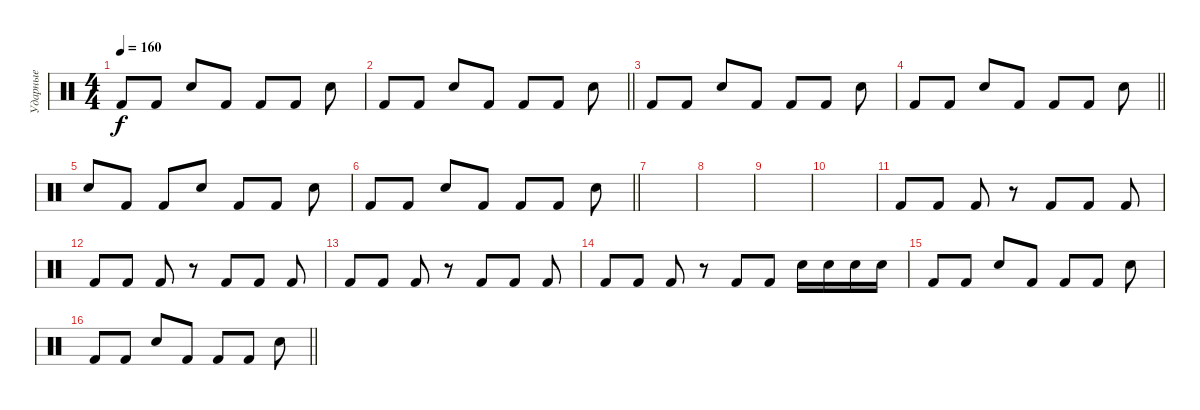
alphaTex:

\track ("Ударные" "Ударные") {instrument percussion}
\staff {score}
\articulation defaults
\ts (4 4)
\tempo 160
\clef neutral
\ks c "Kick (hit) 2".8{dy f} "Kick (hit) 2".8 "Snare (hit) 2".8 "Kick (hit) 2".8 "Kick (hit) 2".8 "Kick (hit) 2".8 "Snare (hit) 2".8
|
\barLineRight lightlight "Kick (hit) 2".8 "Kick (hit) 2".8 "Snare (hit) 2".8 "Kick (hit) 2".8 "Kick (hit) 2".8 "Kick (hit) 2".8 "Snare (hit) 2".8
|
"Kick (hit) 2".8 "Kick (hit) 2".8 "Snare (hit) 2".8 "Kick (hit) 2".8 "Kick (hit) 2".8 "Kick (hit) 2".8 "Snare (hit) 2".8 |
\barLineRight lightlight "Kick (hit) 2".8 "Kick (hit) 2".8 "Snare (hit) 2".8 "Kick (hit) 2".8 "Kick (hit) 2".8 "Kick (hit) 2".8 "Snare (hit) 2".8
|
"Snare (hit) 2".8 "Kick (hit) 2".8 "Kick (hit) 2".8 "Snare (hit) 2".8 "Kick (hit) 2".8 "Kick (hit) 2".8 "Snare (hit) 2".8 |
\barLineRight lightlight "Kick (hit) 2".8 "Kick (hit) 2".8 "Snare (hit) 2".8 "Kick (hit) 2".8 "Kick (hit) 2".8 "Kick (hit) 2".8 "Snare (hit) 2".8
|
|
|
|
|
"Kick (hit) 2".8 "Kick (hit) 2".8 "Kick (hit) 2".8 r.8 "Kick (hit) 2".8 "Kick (hit) 2".8 "Kick (hit) 2".8 |
"Kick (hit) 2".8 "Kick (hit) 2".8 "Kick (hit) 2".8 r.8 "Kick (hit) 2".8 "Kick (hit) 2".8 "Kick (hit) 2".8 |
"Kick (hit) 2".8 "Kick (hit) 2".8 "Kick (hit) 2".8 r.8 "Kick (hit) 2".8 "Kick (hit) 2".8 "Kick (hit) 2".8 |
"Kick (hit) 2".8 "Kick (hit) 2".8 "Kick (hit) 2".8 r.8 "Kick (hit) 2".8 "Kick (hit) 2".8 "Snare (hit) 2".16 "Snare (hit) 2".16 "Snare (hit) 2".16 "Snare (hit) 2".16 |
"Kick (hit) 2".8 "Kick (hit) 2".8 "Snare (hit) 2".8 "Kick (hit) 2".8 "Kick (hit) 2".8 "Kick (hit) 2".8 "Snare (hit) 2".8 |
\barLineRight lightlight "Kick (hit) 2".8 "Kick (hit) 2".8 "Snare (hit) 2".8 "Kick (hit) 2".8 "Kick (hit) 2".8 "Kick (hit) 2".8 "Snare (hit) 2".8
